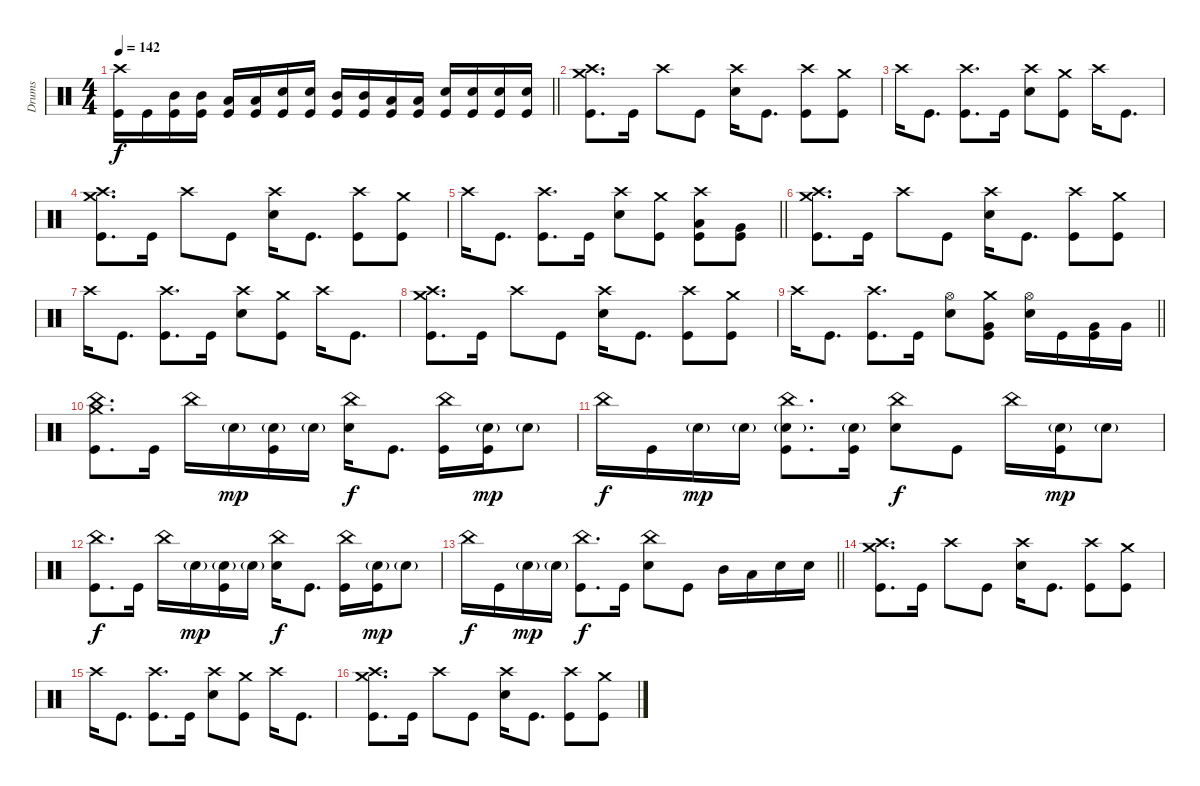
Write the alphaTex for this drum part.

\track ("Drums" "Drums") {instrument percussion}
\staff
\articulation defaults
\ts (4 4)
\tempo 142
\clef neutral
\barLineRight lightlight
\ks c
("Crash high (hit)" "Kick (hit)").16{dy f} "Kick (hit)".16 ("Mid Tom (hit)" "Kick (hit)").16 ("Mid Tom (hit)" "Kick (hit)").16 ("Low Tom (hit)" "Kick (hit)").16 ("Low Tom (hit)" "Kick (hit)").16 ("Electric Snare (hit)" "Kick (hit)").16 ("Electric Snare (hit)" "Kick (hit)").16 ("Mid Tom (hit)" "Kick (hit)").16 ("Mid Tom (hit)" "Kick (hit)").16 ("Low Tom (hit)" "Kick (hit)").16 ("Low Tom (hit)" "Kick (hit)").16 ("Electric Snare (hit)" "Kick (hit)").16 ("Electric Snare (hit)" "Kick (hit)").16 ("Electric Snare (hit)" "Kick (hit)").16 ("Electric Snare (hit)" "Kick (hit)").16 |
\section ("" "")
("Crash high (hit)" "Crash medium (hit)" "Kick (hit)").8{d} "Kick (hit)".16 "Crash high (hit)".8 "Kick (hit)".8 ("Crash high (hit)" "Electric Snare (hit)").16 "Kick (hit)".8{d} ("Crash high (hit)" "Kick (hit)").8 ("Crash medium (hit)" "Kick (hit)").8 |
"Crash high (hit)".16 "Kick (hit)".8{d} ("Crash high (hit)" "Kick (hit)").8{d} "Kick (hit)".16 ("Crash high (hit)" "Electric Snare (hit)").8 ("Crash medium (hit)" "Kick (hit)").8 "Crash high (hit)".16 "Kick (hit)".8{d} |
("Crash high (hit)" "Crash medium (hit)" "Kick (hit)").8{d} "Kick (hit)".16 "Crash high (hit)".8 "Kick (hit)".8 ("Crash high (hit)" "Electric Snare (hit)").16 "Kick (hit)".8{d} ("Crash high (hit)" "Kick (hit)").8 ("Crash medium (hit)" "Kick (hit)").8 |
\barLineRight lightlight "Crash high (hit)".16 "Kick (hit)".8{d}
("Crash high (hit)" "Kick (hit)").8{d} "Kick (hit)".16 ("Crash high (hit)" "Electric Snare (hit)").8 ("Crash medium (hit)" "Kick (hit)").8 ("Crash high (hit)" "Low Tom (hit)" "Kick (hit)").8 ("Very Low Tom (hit)" "Kick (hit)").8 |
("Crash high (hit)" "Crash medium (hit)" "Kick (hit)").8{d} "Kick (hit)".16 "Crash high (hit)".8 "Kick (hit)".8 ("Crash high (hit)" "Electric Snare (hit)").16 "Kick (hit)".8{d} ("Crash high (hit)" "Kick (hit)").8 ("Crash medium (hit)" "Kick (hit)").8 |
"Crash high (hit)".16 "Kick (hit)".8{d} ("Crash high (hit)" "Kick (hit)").8{d} "Kick (hit)".16 ("Crash high (hit)" "Electric Snare (hit)").8 ("Crash medium (hit)" "Kick (hit)").8 "Crash high (hit)".16 "Kick (hit)".8{d} |
("Crash high (hit)" "Crash medium (hit)" "Kick (hit)").8{d} "Kick (hit)".16 "Crash high (hit)".8 "Kick (hit)".8 ("Crash high (hit)" "Electric Snare (hit)").16 "Kick (hit)".8{d} ("Crash high (hit)" "Kick (hit)").8 ("Crash medium (hit)" "Kick (hit)").8 |
\barLineRight lightlight "Crash high (hit)".16 "Kick (hit)".8{d}
("Crash high (hit)" "Kick (hit)").8{d} "Kick (hit)".16 ("Hi-Hat (open)" "Electric Snare (hit)").8 ("Crash medium (hit)" "Very Low Tom (hit)" "Kick (hit)").8 ("Hi-Hat (open)" "Electric Snare (hit)").16 "Kick (hit)".16 ("Very Low Tom (hit)" "Kick (hit)").16 "Very Low Tom (hit)".16 |
("China (hit)" "Crash medium (hit)" "Kick (hit)").8{d} "Kick (hit)".16 "China (hit)".16 "Electric Snare (hit)"{g}.16{dy mp} ("Electric Snare (hit)"{g} "Kick (hit)").16 "Electric Snare (hit)"{g}.16 ("China (hit)" "Electric Snare (hit)").16{dy f} "Kick (hit)".8{d} ("China (hit)" "Kick (hit)").16 ("Electric Snare (hit)"{g} "Kick (hit)").16{dy mp} "Electric Snare (hit)"{g}.8 |
"China (hit)".16{dy f} "Kick (hit)".16 "Electric Snare (hit)"{g}.16{dy mp} "Electric Snare (hit)"{g}.16 ("China (hit)" "Electric Snare (hit)"{g} "Kick (hit)").8{d} ("Electric Snare (hit)"{g} "Kick (hit)").16 ("China (hit)" "Electric Snare (hit)").8{dy f} "Kick (hit)".8 "China (hit)".16 ("Electric Snare (hit)"{g} "Kick (hit)").16{dy mp} "Electric Snare (hit)"{g}.8 |
("China (hit)" "Kick (hit)").8{d dy f} "Kick (hit)".16 "China (hit)".16 "Electric Snare (hit)"{g}.16{dy mp} ("Electric Snare (hit)"{g} "Kick (hit)").16 "Electric Snare (hit)"{g}.16 ("China (hit)" "Electric Snare (hit)").16{dy f} "Kick (hit)".8{d} ("China (hit)" "Kick (hit)").16 ("Electric Snare (hit)"{g} "Kick (hit)").16{dy mp} "Electric Snare (hit)"{g}.8 |
\barLineRight lightlight "China (hit)".16{dy f} "Kick (hit)".16 "Electric Snare (hit)"{g}.16{dy mp} "Electric Snare (hit)"{g}.16
("China (hit)" "Kick (hit)").8{d dy f} "Kick (hit)".16 ("China (hit)" "Electric Snare (hit)").8 "Kick (hit)".8 "Mid Tom (hit)".16 "Low Tom (hit)".16 "Electric Snare (hit)".16 "Electric Snare (hit)".16 |
("Crash high (hit)" "Crash medium (hit)" "Kick (hit)").8{d} "Kick (hit)".16 "Crash high (hit)".8 "Kick (hit)".8 ("Crash high (hit)" "Electric Snare (hit)").16 "Kick (hit)".8{d} ("Crash high (hit)" "Kick (hit)").8 ("Crash medium (hit)" "Kick (hit)").8 |
"Crash high (hit)".16 "Kick (hit)".8{d} ("Crash high (hit)" "Kick (hit)").8{d} "Kick (hit)".16 ("Crash high (hit)" "Electric Snare (hit)").8 ("Crash medium (hit)" "Kick (hit)").8 "Crash high (hit)".16 "Kick (hit)".8{d} |
("Crash high (hit)" "Crash medium (hit)" "Kick (hit)").8{d} "Kick (hit)".16 "Crash high (hit)".8 "Kick (hit)".8 ("Crash high (hit)" "Electric Snare (hit)").16 "Kick (hit)".8{d} ("Crash high (hit)" "Kick (hit)").8 ("Crash medium (hit)" "Kick (hit)").8
